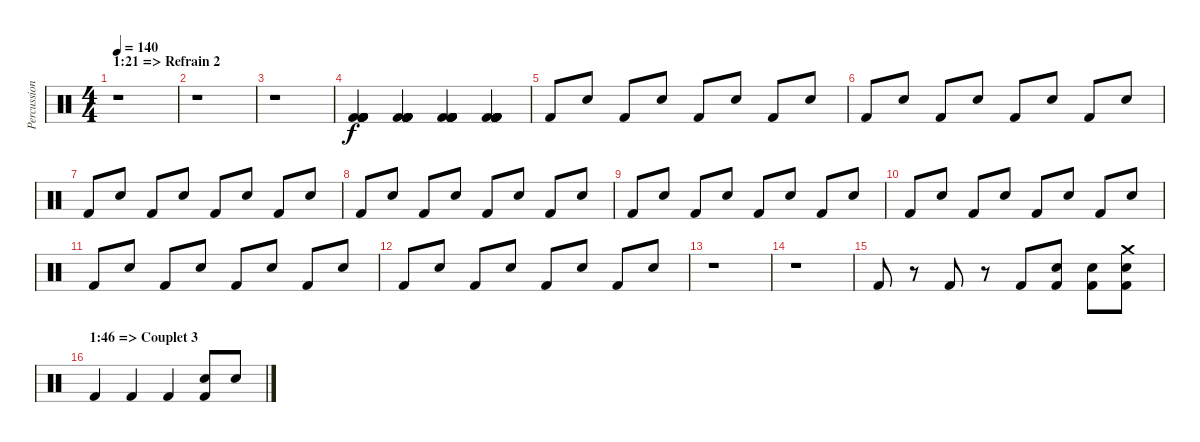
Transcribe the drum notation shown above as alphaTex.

\track ("Percussions" "Percussion") {instrument percussion}
\staff {score}
\articulation defaults
\ts (4 4)
\section ("" "1:21 => Refrain 2")
\tempo 140
\clef neutral
\ks c
r.1{dy fff} |
r.1 |
r.1 |
("Kick (hit) 2" "Kick (hit) 2" "Kick (hit) 2" "Kick (hit) 2" "Kick (hit) 2" "Kick (hit) 2").4{dy f} ("Kick (hit) 2" "Kick (hit) 2" "Kick (hit) 2" "Kick (hit) 2" "Kick (hit) 2" "Kick (hit) 2").4 ("Kick (hit) 2" "Kick (hit) 2" "Kick (hit) 2" "Kick (hit) 2" "Kick (hit) 2" "Kick (hit) 2").4 ("Kick (hit) 2" "Kick (hit) 2" "Kick (hit) 2" "Kick (hit) 2" "Kick (hit) 2" "Kick (hit) 2").4 |
"Kick (hit) 2".8 "Snare (hit) 2".8 "Kick (hit) 2".8 "Snare (hit) 2".8 "Kick (hit) 2".8 "Snare (hit) 2".8 "Kick (hit) 2".8 "Snare (hit) 2".8 |
"Kick (hit) 2".8 "Snare (hit) 2".8 "Kick (hit) 2".8 "Snare (hit) 2".8 "Kick (hit) 2".8 "Snare (hit) 2".8 "Kick (hit) 2".8 "Snare (hit) 2".8 |
"Kick (hit) 2".8 "Snare (hit) 2".8 "Kick (hit) 2".8 "Snare (hit) 2".8 "Kick (hit) 2".8 "Snare (hit) 2".8 "Kick (hit) 2".8 "Snare (hit) 2".8 |
"Kick (hit) 2".8 "Snare (hit) 2".8 "Kick (hit) 2".8 "Snare (hit) 2".8 "Kick (hit) 2".8 "Snare (hit) 2".8 "Kick (hit) 2".8 "Snare (hit) 2".8 |
"Kick (hit) 2".8 "Snare (hit) 2".8 "Kick (hit) 2".8 "Snare (hit) 2".8 "Kick (hit) 2".8 "Snare (hit) 2".8 "Kick (hit) 2".8 "Snare (hit) 2".8 |
"Kick (hit) 2".8 "Snare (hit) 2".8 "Kick (hit) 2".8 "Snare (hit) 2".8 "Kick (hit) 2".8 "Snare (hit) 2".8 "Kick (hit) 2".8 "Snare (hit) 2".8 |
"Kick (hit) 2".8 "Snare (hit) 2".8 "Kick (hit) 2".8 "Snare (hit) 2".8 "Kick (hit) 2".8 "Snare (hit) 2".8 "Kick (hit) 2".8 "Snare (hit) 2".8 |
"Kick (hit) 2".8 "Snare (hit) 2".8 "Kick (hit) 2".8 "Snare (hit) 2".8 "Kick (hit) 2".8 "Snare (hit) 2".8 "Kick (hit) 2".8 "Snare (hit) 2".8 |
r.1 |
r.1 |
"Kick (hit) 2".8 r.8 "Kick (hit) 2".8 r.8 "Kick (hit) 2".8 ("Snare (hit) 2" "Kick (hit) 2").8 ("Snare (hit) 2" "Kick (hit) 2").8 ("Crash medium (hit)" "Snare (hit) 2" "Kick (hit) 2").8 |
\section ("" "1:46 => Couplet 3")
"Kick (hit) 2".4 "Kick (hit) 2".4 "Kick (hit) 2".4 ("Electric Snare (hit)" "Kick (hit) 2").8 "Electric Snare (hit)".8
